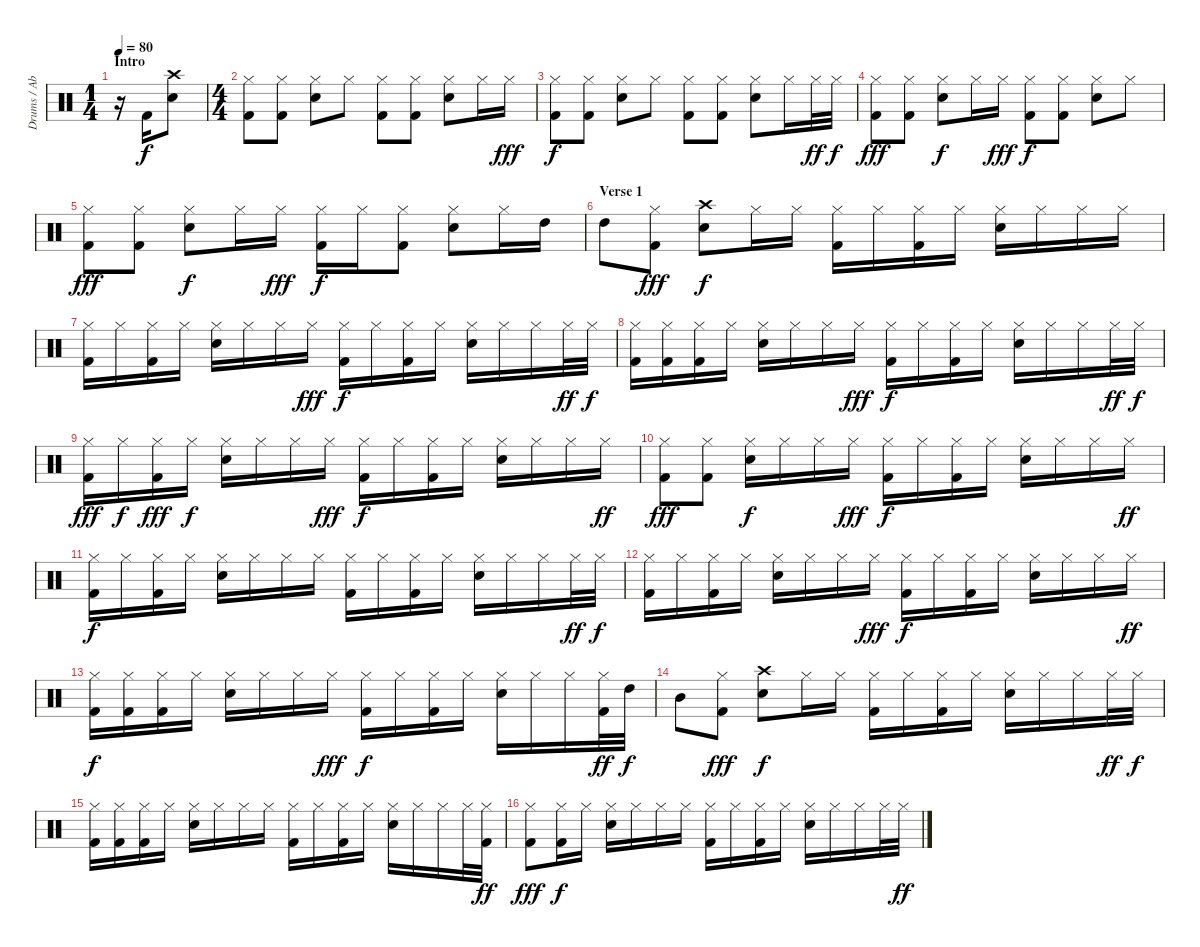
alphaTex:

\track ("Drums / Abe Cunningham" "Drums / Ab") {instrument percussion}
\staff {score}
\articulation defaults
\ts (1 4)
\section ("" "Intro")
\tempo 80
\clef neutral
\ks c
r.16{dy f} "Kick (hit) 2".16 ("Crash high (hit)" "Electric Snare (hit)").8 |
\ts (4 4)
("Hi-Hat (closed)" "Kick (hit) 2").8 ("Hi-Hat (closed)" "Kick (hit) 2").8 ("Hi-Hat (closed)" "Electric Snare (hit)").8 "Hi-Hat (closed)".8 ("Hi-Hat (closed)" "Kick (hit) 2").8 ("Hi-Hat (closed)" "Kick (hit) 2").8 ("Hi-Hat (closed)" "Electric Snare (hit)").8 "Hi-Hat (closed)".16 "Hi-Hat (closed)".16{dy fff} |
("Hi-Hat (closed)" "Kick (hit) 2").8{dy f} ("Hi-Hat (closed)" "Kick (hit) 2").8 ("Hi-Hat (closed)" "Electric Snare (hit)").8 "Hi-Hat (closed)".8 ("Hi-Hat (closed)" "Kick (hit) 2").8 ("Hi-Hat (closed)" "Kick (hit) 2").8 ("Hi-Hat (closed)" "Electric Snare (hit)").8 "Hi-Hat (closed)".16 "Hi-Hat (closed)".32{dy ff} "Hi-Hat (closed)".32{dy f} |
("Hi-Hat (closed)" "Kick (hit) 2").8{dy fff} ("Hi-Hat (closed)" "Kick (hit) 2").8 ("Hi-Hat (closed)" "Electric Snare (hit)").8{dy f} "Hi-Hat (closed)".16 "Hi-Hat (closed)".16{dy fff} ("Hi-Hat (closed)" "Kick (hit) 2").8{dy f} ("Hi-Hat (closed)" "Kick (hit) 2").8 ("Hi-Hat (closed)" "Electric Snare (hit)").8 "Hi-Hat (closed)".8 |
("Hi-Hat (closed)" "Kick (hit) 2").8{dy fff} ("Hi-Hat (closed)" "Kick (hit) 2").8 ("Hi-Hat (closed)" "Electric Snare (hit)").8{dy f} "Hi-Hat (closed)".16 "Hi-Hat (closed)".16{dy fff} ("Hi-Hat (closed)" "Kick (hit) 2").16{dy f} "Hi-Hat (closed)".16 ("Hi-Hat (closed)" "Kick (hit) 2").8 ("Hi-Hat (closed)" "Electric Snare (hit)").8 "Hi-Hat (closed)".16 "High Tom (hit)".16 |
\section ("" "Verse 1")
"High Tom (hit)".8 ("Hi-Hat (closed)" "Kick (hit) 2").8{dy fff} ("Crash high (hit)" "Electric Snare (hit)").8{dy f} "Hi-Hat (closed)".16 "Hi-Hat (closed)".16 ("Hi-Hat (closed)" "Kick (hit) 2").16 "Hi-Hat (closed)".16 ("Hi-Hat (closed)" "Kick (hit) 2").16 "Hi-Hat (closed)".16 ("Hi-Hat (closed)" "Electric Snare (hit)").16 "Hi-Hat (closed)".16 "Hi-Hat (closed)".16 "Hi-Hat (closed)".16 |
("Hi-Hat (closed)" "Kick (hit) 2").16 "Hi-Hat (closed)".16 ("Hi-Hat (closed)" "Kick (hit) 2").16 "Hi-Hat (closed)".16 ("Hi-Hat (closed)" "Electric Snare (hit)").16 "Hi-Hat (closed)".16 "Hi-Hat (closed)".16 "Hi-Hat (closed)".16{dy fff} ("Hi-Hat (closed)" "Kick (hit) 2").16{dy f} "Hi-Hat (closed)".16 ("Hi-Hat (closed)" "Kick (hit) 2").16 "Hi-Hat (closed)".16 ("Hi-Hat (closed)" "Electric Snare (hit)").16 "Hi-Hat (closed)".16 "Hi-Hat (closed)".16 "Hi-Hat (closed)".32{dy ff} "Hi-Hat (closed)".32{dy f} |
("Hi-Hat (closed)" "Kick (hit) 2").16 ("Hi-Hat (closed)" "Kick (hit) 2").16 ("Hi-Hat (closed)" "Kick (hit) 2").16 "Hi-Hat (closed)".16 ("Hi-Hat (closed)" "Electric Snare (hit)").16 "Hi-Hat (closed)".16 "Hi-Hat (closed)".16 "Hi-Hat (closed)".16{dy fff} ("Hi-Hat (closed)" "Kick (hit) 2").16{dy f} "Hi-Hat (closed)".16 ("Hi-Hat (closed)" "Kick (hit) 2").16 "Hi-Hat (closed)".16 ("Hi-Hat (closed)" "Electric Snare (hit)").16 "Hi-Hat (closed)".16 "Hi-Hat (closed)".16 "Hi-Hat (closed)".32{dy ff} "Hi-Hat (closed)".32{dy f} |
("Hi-Hat (closed)" "Kick (hit) 2").16{dy fff} "Hi-Hat (closed)".16{dy f} ("Hi-Hat (closed)" "Kick (hit) 2").16{dy fff} "Hi-Hat (closed)".16{dy f} ("Hi-Hat (closed)" "Electric Snare (hit)").16 "Hi-Hat (closed)".16 "Hi-Hat (closed)".16 "Hi-Hat (closed)".16{dy fff} ("Hi-Hat (closed)" "Kick (hit) 2").16{dy f} "Hi-Hat (closed)".16 ("Hi-Hat (closed)" "Kick (hit) 2").16 "Hi-Hat (closed)".16 ("Hi-Hat (closed)" "Electric Snare (hit)").16 "Hi-Hat (closed)".16 "Hi-Hat (closed)".16 "Hi-Hat (closed)".16{dy ff} |
("Hi-Hat (closed)" "Kick (hit) 2").8{dy fff} ("Hi-Hat (closed)" "Kick (hit) 2").8 ("Hi-Hat (closed)" "Electric Snare (hit)").16{dy f} "Hi-Hat (closed)".16 "Hi-Hat (closed)".16 "Hi-Hat (closed)".16{dy fff} ("Hi-Hat (closed)" "Kick (hit) 2").16{dy f} "Hi-Hat (closed)".16 ("Hi-Hat (closed)" "Kick (hit) 2").16 "Hi-Hat (closed)".16 ("Hi-Hat (closed)" "Electric Snare (hit)").16 "Hi-Hat (closed)".16 "Hi-Hat (closed)".16 "Hi-Hat (closed)".16{dy ff} |
("Hi-Hat (closed)" "Kick (hit) 2").16{dy f} "Hi-Hat (closed)".16 ("Hi-Hat (closed)" "Kick (hit) 2").16 "Hi-Hat (closed)".16 ("Hi-Hat (closed)" "Electric Snare (hit)").16 "Hi-Hat (closed)".16 "Hi-Hat (closed)".16 "Hi-Hat (closed)".16 ("Hi-Hat (closed)" "Kick (hit) 2").16 "Hi-Hat (closed)".16 ("Hi-Hat (closed)" "Kick (hit) 2").16 "Hi-Hat (closed)".16 ("Hi-Hat (closed)" "Electric Snare (hit)").16 "Hi-Hat (closed)".16 "Hi-Hat (closed)".16 "Hi-Hat (closed)".32{dy ff} "Hi-Hat (closed)".32{dy f} |
("Hi-Hat (closed)" "Kick (hit) 2").16 "Hi-Hat (closed)".16 ("Hi-Hat (closed)" "Kick (hit) 2").16 "Hi-Hat (closed)".16 ("Hi-Hat (closed)" "Electric Snare (hit)").16 "Hi-Hat (closed)".16 "Hi-Hat (closed)".16 "Hi-Hat (closed)".16{dy fff} ("Hi-Hat (closed)" "Kick (hit) 2").16{dy f} "Hi-Hat (closed)".16 ("Hi-Hat (closed)" "Kick (hit) 2").16 "Hi-Hat (closed)".16 ("Hi-Hat (closed)" "Electric Snare (hit)").16 "Hi-Hat (closed)".16 "Hi-Hat (closed)".16 "Hi-Hat (closed)".16{dy ff} |
("Hi-Hat (closed)" "Kick (hit) 2").16{dy f} ("Hi-Hat (closed)" "Kick (hit) 2").16 ("Hi-Hat (closed)" "Kick (hit) 2").16 "Hi-Hat (closed)".16 ("Hi-Hat (closed)" "Electric Snare (hit)").16 "Hi-Hat (closed)".16 "Hi-Hat (closed)".16 "Hi-Hat (closed)".16{dy fff} ("Hi-Hat (closed)" "Kick (hit) 2").16{dy f} "Hi-Hat (closed)".16 ("Hi-Hat (closed)" "Kick (hit) 2").16 "Hi-Hat (closed)".16 ("Hi-Hat (closed)" "Electric Snare (hit)").16 "Hi-Hat (closed)".16 "Hi-Hat (closed)".16 ("Hi-Hat (closed)" "Kick (hit) 2").32{dy ff} "High Tom (hit)".32{dy f} |
"Mid Tom (hit)".8 ("Hi-Hat (closed)" "Kick (hit) 2").8{dy fff} ("Crash high (hit)" "Electric Snare (hit)").8{dy f} "Hi-Hat (closed)".16 "Hi-Hat (closed)".16 ("Hi-Hat (closed)" "Kick (hit) 2").16 "Hi-Hat (closed)".16 ("Hi-Hat (closed)" "Kick (hit) 2").16 "Hi-Hat (closed)".16 ("Hi-Hat (closed)" "Electric Snare (hit)").16 "Hi-Hat (closed)".16 "Hi-Hat (closed)".16 "Hi-Hat (closed)".32{dy ff} "Hi-Hat (closed)".32{dy f} |
("Hi-Hat (closed)" "Kick (hit) 2").16 ("Hi-Hat (closed)" "Kick (hit) 2").16 ("Hi-Hat (closed)" "Kick (hit) 2").16 "Hi-Hat (closed)".16 ("Hi-Hat (closed)" "Electric Snare (hit)").16 "Hi-Hat (closed)".16 "Hi-Hat (closed)".16 "Hi-Hat (closed)".16 ("Hi-Hat (closed)" "Kick (hit) 2").16 "Hi-Hat (closed)".16 ("Hi-Hat (closed)" "Kick (hit) 2").16 "Hi-Hat (closed)".16 ("Hi-Hat (closed)" "Electric Snare (hit)").16 "Hi-Hat (closed)".16 "Hi-Hat (closed)".16 "Hi-Hat (closed)".32 ("Hi-Hat (closed)" "Kick (hit) 2").32{dy ff} |
("Hi-Hat (closed)" "Kick (hit) 2").8{dy fff} ("Hi-Hat (closed)" "Kick (hit) 2").16{dy f} "Hi-Hat (closed)".16 ("Hi-Hat (closed)" "Electric Snare (hit)").16 "Hi-Hat (closed)".16 "Hi-Hat (closed)".16 "Hi-Hat (closed)".16 ("Hi-Hat (closed)" "Kick (hit) 2").16 "Hi-Hat (closed)".16 ("Hi-Hat (closed)" "Kick (hit) 2").16 "Hi-Hat (closed)".16 ("Hi-Hat (closed)" "Electric Snare (hit)").16 "Hi-Hat (closed)".16 "Hi-Hat (closed)".16 "Hi-Hat (closed)".32 "Hi-Hat (closed)".32{dy ff}
